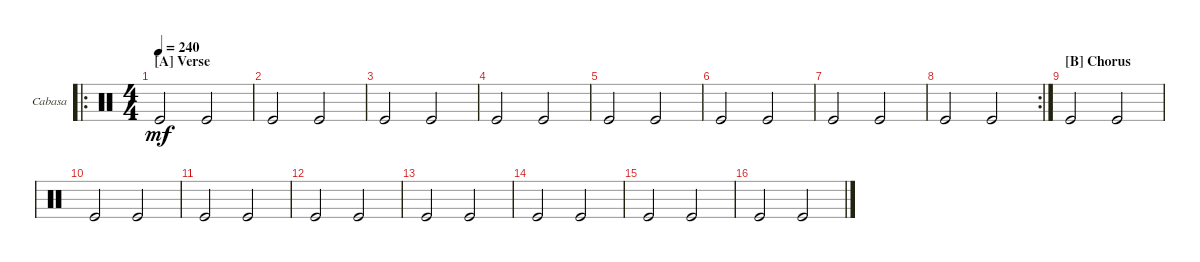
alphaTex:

\bracketExtendMode groupsimilarinstruments
\firstSystemTrackNameOrientation horizontal
\otherSystemsTrackNameOrientation horizontal
\track ("Cabasa" "Cabasa") {instrument percussion}
\staff {score}
\articulation defaults
\ro
\ts (4 4)
\section ("A" "Verse")
\tempo 240
\clef neutral
\scale
0.365591
\ks c "Kick (hit)".2{dy mf} "Kick (hit)".2
|
\scale
0.301075 "Kick (hit)".2 "Kick (hit)".2 |
\scale
0.333333 "Kick (hit)".2 "Kick (hit)".2 |
\scale
0.333333 "Kick (hit)".2 "Kick (hit)".2 |
\scale
0.333333 "Kick (hit)".2 "Kick (hit)".2 |
\scale
0.321839 "Kick (hit)".2 "Kick (hit)".2 |
\scale
0.321839 "Kick (hit)".2 "Kick (hit)".2 |
\rc 2
\scale
0.356322 "Kick (hit)".2 "Kick (hit)".2 |
\section ("B" "Chorus")
\scale
0.333333 "Kick (hit)".2 "Kick (hit)".2 |
\scale
0.333333 "Kick (hit)".2 "Kick (hit)".2 |
\scale
0.333333 "Kick (hit)".2 "Kick (hit)".2 |
\scale
0.333333 "Kick (hit)".2 "Kick (hit)".2 |
\scale
0.333333 "Kick (hit)".2 "Kick (hit)".2 |
\scale
0.333333 "Kick (hit)".2 "Kick (hit)".2 |
\scale
0.333333 "Kick (hit)".2 "Kick (hit)".2 |
\scale
0.333333 "Kick (hit)".2 "Kick (hit)".2
